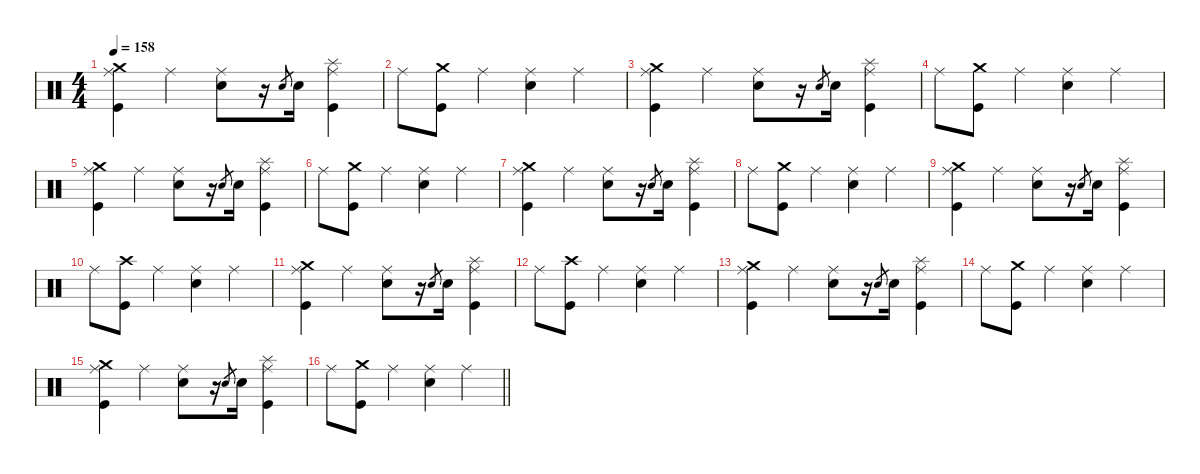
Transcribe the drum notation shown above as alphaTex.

\defaultSystemsLayout 4
\hideDynamics
\bracketExtendMode nobrackets
\singleTrackTrackNamePolicy hidden
\multiTrackTrackNamePolicy hidden
\firstSystemTrackNameMode fullname
\firstSystemTrackNameOrientation horizontal
\otherSystemsTrackNameOrientation horizontal
\track ("Drums" "drm.") {instrument percussion}
\staff {score}
\articulation defaults
\ts (4 4)
\tempo 158
\clef neutral
\ks aminor
("Crash medium (hit)" "Ride (middle)" "Kick (hit)").4{dy f beam Down} "Ride (middle)".4{beam Down} ("Ride (middle)" "Snare (hit) 2").8{beam Down} r.16{beam Down} "Electric Snare (hit)".8{gr dy pp beam Up} "Snare (hit) 2".16{dy p beam Down} ("Splash (hit)" "Ride (middle)" "Kick (hit)").4{dy mf beam Down} |
"Ride (middle)".8{dy f beam Down} ("Crash medium (hit)" "Kick (hit)").8{beam Down} "Ride (middle)".4{beam Down} ("Ride (middle)" "Snare (hit) 2").4{beam Down} "Ride (middle)".4{beam Down} |
("Crash medium (hit)" "Ride (middle)" "Kick (hit)").4{beam Down} "Ride (middle)".4{beam Down} ("Ride (middle)" "Snare (hit) 2").8{beam Down} r.16{beam Down} "Electric Snare (hit)".8{gr dy pp beam Up} "Snare (hit) 2".16{dy p beam Down} ("Splash (hit)" "Ride (middle)" "Kick (hit)").4{dy mf beam Down} |
"Ride (middle)".8{dy f beam Down} ("Crash medium (hit)" "Kick (hit)").8{beam Down} "Ride (middle)".4{beam Down} ("Ride (middle)" "Snare (hit) 2").4{beam Down} "Ride (middle)".4{beam Down} |
("Crash medium (hit)" "Ride (middle)" "Kick (hit)").4{beam Down} "Ride (middle)".4{beam Down} ("Ride (middle)" "Snare (hit) 2").8{beam Down} r.16{beam Down} "Electric Snare (hit)".8{gr dy pp beam Up} "Snare (hit) 2".16{dy p beam Down} ("Splash (hit)" "Ride (middle)" "Kick (hit)").4{dy mf beam Down} |
"Ride (middle)".8{dy f beam Down} ("Crash medium (hit)" "Kick (hit)").8{beam Down} "Ride (middle)".4{beam Down} ("Ride (middle)" "Snare (hit) 2").4{beam Down} "Ride (middle)".4{beam Down} |
("Crash medium (hit)" "Ride (middle)" "Kick (hit)").4{beam Down} "Ride (middle)".4{beam Down} ("Ride (middle)" "Snare (hit) 2").8{beam Down} r.16{beam Down} "Electric Snare (hit)".8{gr dy pp beam Up} "Snare (hit) 2".16{dy p beam Down} ("Splash (hit)" "Ride (middle)" "Kick (hit)").4{dy mf beam Down} |
"Ride (middle)".8{dy f beam Down} ("Crash medium (hit)" "Kick (hit)").8{beam Down} "Ride (middle)".4{beam Down} ("Ride (middle)" "Snare (hit) 2").4{beam Down} "Ride (middle)".4{beam Down} |
("Crash medium (hit)" "Ride (middle)" "Kick (hit)").4{beam Down} "Ride (middle)".4{beam Down} ("Ride (middle)" "Snare (hit) 2").8{beam Down} r.16{beam Down} "Electric Snare (hit)".8{gr dy pp beam Up} "Snare (hit) 2".16{dy p beam Down} ("Splash (hit)" "Ride (middle)" "Kick (hit)").4{dy mf beam Down} |
"Ride (middle)".8{dy f beam Down} ("Crash high (hit)" "Kick (hit)").8{dy mf beam Down} "Ride (middle)".4{dy f beam Down} ("Ride (middle)" "Snare (hit) 2").4{beam Down} "Ride (middle)".4{beam Down} |
("Crash medium (hit)" "Ride (middle)" "Kick (hit)").4{beam Down} "Ride (middle)".4{beam Down} ("Ride (middle)" "Snare (hit) 2").8{beam Down} r.16{beam Down} "Electric Snare (hit)".8{gr dy pp beam Up} "Snare (hit) 2".16{dy p beam Down} ("Splash (hit)" "Ride (middle)" "Kick (hit)").4{dy mf beam Down} |
"Ride (middle)".8{dy f beam Down} ("Crash high (hit)" "Kick (hit)").8{dy mf beam Down} "Ride (middle)".4{dy f beam Down} ("Ride (middle)" "Snare (hit) 2").4{beam Down} "Ride (middle)".4{beam Down} |
("Crash medium (hit)" "Ride (middle)" "Kick (hit)").4{beam Down} "Ride (middle)".4{beam Down} ("Ride (middle)" "Snare (hit) 2").8{beam Down} r.16{beam Down} "Electric Snare (hit)".8{gr dy pp beam Up} "Snare (hit) 2".16{dy p beam Down} ("Splash (hit)" "Ride (middle)" "Kick (hit)").4{dy mf beam Down} |
"Ride (middle)".8{dy f beam Down} ("Crash medium (hit)" "Kick (hit)").8{beam Down} "Ride (middle)".4{beam Down} ("Ride (middle)" "Snare (hit) 2").4{beam Down} "Ride (middle)".4{beam Down} |
("Crash medium (hit)" "Ride (middle)" "Kick (hit)").4{beam Down} "Ride (middle)".4{beam Down} ("Ride (middle)" "Snare (hit) 2").8{beam Down} r.16{beam Down} "Electric Snare (hit)".8{gr dy pp beam Up} "Snare (hit) 2".16{dy p beam Down} ("Splash (hit)" "Ride (middle)" "Kick (hit)").4{dy mf beam Down} |
\barLineRight lightlight "Ride (middle)".8{dy f beam Down}
("Crash medium (hit)" "Kick (hit)").8{beam Down} "Ride (middle)".4{beam Down} ("Ride (middle)" "Snare (hit) 2").4{beam Down} "Ride (middle)".4{beam Down}
